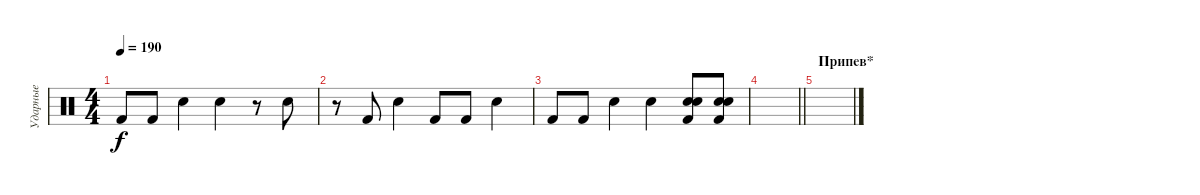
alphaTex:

\track ("Ударные" "Ударные") {instrument percussion}
\staff {score}
\articulation defaults
\ts (4 4)
\tempo 190
\clef neutral
\ks c "Kick (hit) 2".8{dy f} "Kick (hit) 2".8 "Electric Snare (hit)".4 "Electric Snare (hit)".4
r.8 "Electric Snare (hit)".8 |
r.8 "Kick (hit) 2".8 "Electric Snare (hit)".4 "Kick (hit) 2".8 "Kick (hit) 2".8 "Electric Snare (hit)".4 |
"Kick (hit) 2".8 "Kick (hit) 2".8 "Electric Snare (hit)".4 "Electric Snare (hit)".4 ("Electric Snare (hit)" "Snare (hit) 2" "Kick (hit) 2").8 ("Electric Snare (hit)" "Snare (hit) 2" "Kick (hit) 2").8 |
\barLineRight lightlight
|
\section ("" "Припев*")
